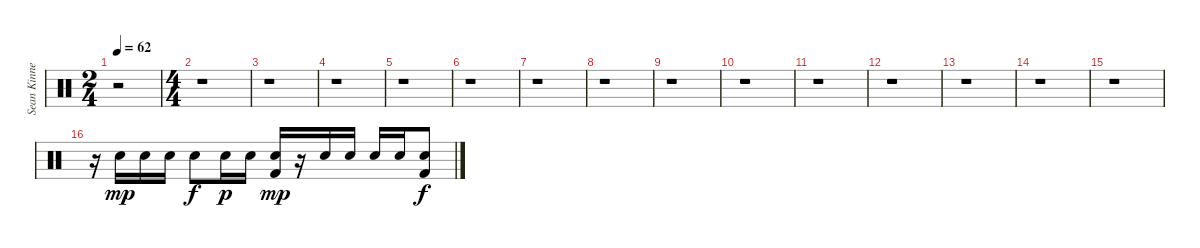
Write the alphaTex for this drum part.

\track ("Sean Kinney - Drums" "Sean Kinne") {instrument percussion}
\staff {score}
\articulation defaults
\ts (2 4)
\tempo 62
\clef neutral
\ks c
r.2{dy mp} |
\ts (4 4)
r.1 |
r.1 |
r.1 |
r.1 |
r.1 |
r.1 |
r.1 |
r.1 |
r.1 |
r.1 |
r.1 |
r.1 |
r.1 |
r.1 |
r.16 "Electric Snare (hit)".16 "Electric Snare (hit)".16 "Electric Snare (hit)".16 "Electric Snare (hit)".8{dy f} "Electric Snare (hit)".16{dy p} "Electric Snare (hit)".16 ("Electric Snare (hit)" "Kick (hit) 2").16{dy mp} r.16 "Electric Snare (hit)".16 "Electric Snare (hit)".16 "Electric Snare (hit)".16 "Electric Snare (hit)".16 ("Electric Snare (hit)" "Kick (hit) 2").8{dy f}
